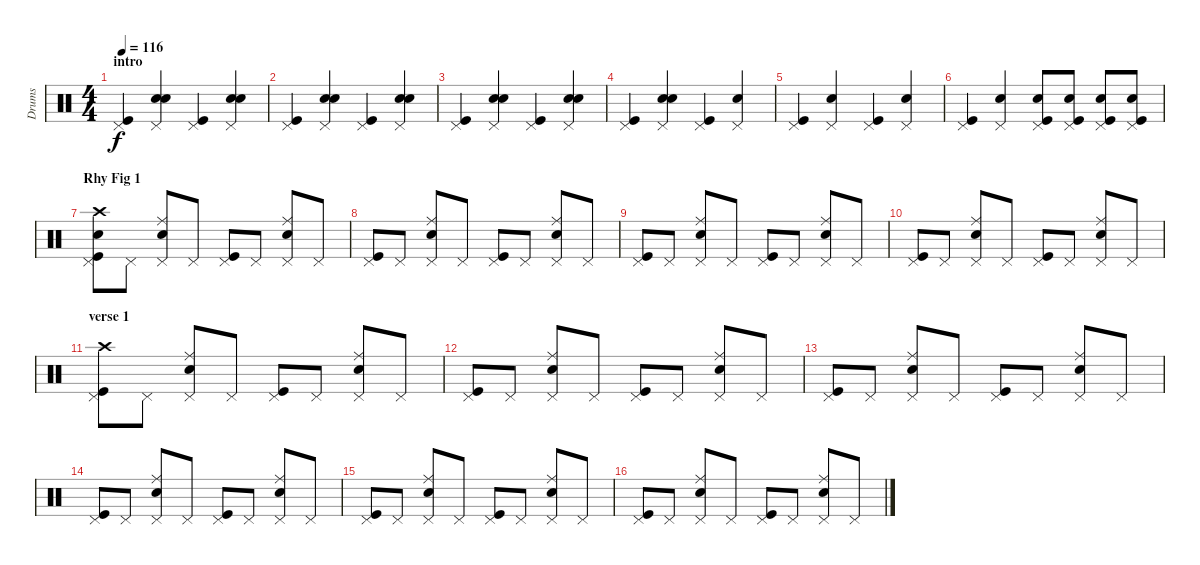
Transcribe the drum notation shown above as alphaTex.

\track ("Drums" "Drums") {instrument percussion}
\staff {score}
\articulation defaults
\ts (4 4)
\section ("" "intro")
\tempo 116
\clef neutral
\ks c
("Pedal Hi-Hat (hit)" "Kick (hit)").4{dy f} ("Electric Snare (hit)" "Electric Snare (hit)" "Pedal Hi-Hat (hit)").4 ("Pedal Hi-Hat (hit)" "Kick (hit)").4 ("Electric Snare (hit)" "Electric Snare (hit)" "Pedal Hi-Hat (hit)").4 |
("Pedal Hi-Hat (hit)" "Kick (hit)").4 ("Electric Snare (hit)" "Electric Snare (hit)" "Pedal Hi-Hat (hit)").4 ("Pedal Hi-Hat (hit)" "Kick (hit)").4 ("Electric Snare (hit)" "Electric Snare (hit)" "Pedal Hi-Hat (hit)").4 |
("Pedal Hi-Hat (hit)" "Kick (hit)").4 ("Electric Snare (hit)" "Electric Snare (hit)" "Pedal Hi-Hat (hit)").4 ("Pedal Hi-Hat (hit)" "Kick (hit)").4 ("Electric Snare (hit)" "Electric Snare (hit)" "Pedal Hi-Hat (hit)").4 |
("Pedal Hi-Hat (hit)" "Kick (hit)").4 ("Electric Snare (hit)" "Electric Snare (hit)" "Pedal Hi-Hat (hit)").4 ("Pedal Hi-Hat (hit)" "Kick (hit)").4 ("Electric Snare (hit)" "Pedal Hi-Hat (hit)").4 |
("Pedal Hi-Hat (hit)" "Kick (hit)").4 ("Electric Snare (hit)" "Pedal Hi-Hat (hit)").4 ("Pedal Hi-Hat (hit)" "Kick (hit)").4 ("Electric Snare (hit)" "Pedal Hi-Hat (hit)").4 |
("Pedal Hi-Hat (hit)" "Kick (hit)").4 ("Electric Snare (hit)" "Pedal Hi-Hat (hit)").4 ("Electric Snare (hit)" "Pedal Hi-Hat (hit)" "Kick (hit)").8 ("Electric Snare (hit)" "Pedal Hi-Hat (hit)" "Kick (hit)").8 ("Electric Snare (hit)" "Pedal Hi-Hat (hit)" "Kick (hit)").8 ("Electric Snare (hit)" "Pedal Hi-Hat (hit)" "Kick (hit)").8 |
\section ("" "Rhy Fig 1")
("Crash high (hit)" "Electric Snare (hit)" "Pedal Hi-Hat (hit)" "Kick (hit)").8 "Pedal Hi-Hat (hit)".8 ("Ride (middle)" "Electric Snare (hit)" "Pedal Hi-Hat (hit)").8 "Pedal Hi-Hat (hit)".8 ("Pedal Hi-Hat (hit)" "Kick (hit)").8 "Pedal Hi-Hat (hit)".8 ("Ride (middle)" "Electric Snare (hit)" "Pedal Hi-Hat (hit)").8 "Pedal Hi-Hat (hit)".8 |
("Pedal Hi-Hat (hit)" "Kick (hit)").8 "Pedal Hi-Hat (hit)".8 ("Ride (middle)" "Electric Snare (hit)" "Pedal Hi-Hat (hit)").8 "Pedal Hi-Hat (hit)".8 ("Pedal Hi-Hat (hit)" "Kick (hit)").8 "Pedal Hi-Hat (hit)".8 ("Ride (middle)" "Electric Snare (hit)" "Pedal Hi-Hat (hit)").8 "Pedal Hi-Hat (hit)".8 |
("Pedal Hi-Hat (hit)" "Kick (hit)").8 "Pedal Hi-Hat (hit)".8 ("Ride (middle)" "Electric Snare (hit)" "Pedal Hi-Hat (hit)").8 "Pedal Hi-Hat (hit)".8 ("Pedal Hi-Hat (hit)" "Kick (hit)").8 "Pedal Hi-Hat (hit)".8 ("Ride (middle)" "Electric Snare (hit)" "Pedal Hi-Hat (hit)").8 "Pedal Hi-Hat (hit)".8 |
("Pedal Hi-Hat (hit)" "Kick (hit)").8 "Pedal Hi-Hat (hit)".8 ("Ride (middle)" "Electric Snare (hit)" "Pedal Hi-Hat (hit)").8 "Pedal Hi-Hat (hit)".8 ("Pedal Hi-Hat (hit)" "Kick (hit)").8 "Pedal Hi-Hat (hit)".8 ("Ride (middle)" "Electric Snare (hit)" "Pedal Hi-Hat (hit)").8 "Pedal Hi-Hat (hit)".8 |
\section ("" "verse 1")
("Crash high (hit)" "Pedal Hi-Hat (hit)" "Kick (hit)").8 "Pedal Hi-Hat (hit)".8 ("Ride (middle)" "Electric Snare (hit)" "Pedal Hi-Hat (hit)").8 "Pedal Hi-Hat (hit)".8 ("Pedal Hi-Hat (hit)" "Kick (hit)").8 "Pedal Hi-Hat (hit)".8 ("Ride (middle)" "Electric Snare (hit)" "Pedal Hi-Hat (hit)").8 "Pedal Hi-Hat (hit)".8 |
("Pedal Hi-Hat (hit)" "Kick (hit)").8 "Pedal Hi-Hat (hit)".8 ("Ride (middle)" "Electric Snare (hit)" "Pedal Hi-Hat (hit)").8 "Pedal Hi-Hat (hit)".8 ("Pedal Hi-Hat (hit)" "Kick (hit)").8 "Pedal Hi-Hat (hit)".8 ("Ride (middle)" "Electric Snare (hit)" "Pedal Hi-Hat (hit)").8 "Pedal Hi-Hat (hit)".8 |
("Pedal Hi-Hat (hit)" "Kick (hit)").8 "Pedal Hi-Hat (hit)".8 ("Ride (middle)" "Electric Snare (hit)" "Pedal Hi-Hat (hit)").8 "Pedal Hi-Hat (hit)".8 ("Pedal Hi-Hat (hit)" "Kick (hit)").8 "Pedal Hi-Hat (hit)".8 ("Ride (middle)" "Electric Snare (hit)" "Pedal Hi-Hat (hit)").8 "Pedal Hi-Hat (hit)".8 |
("Pedal Hi-Hat (hit)" "Kick (hit)").8 "Pedal Hi-Hat (hit)".8 ("Ride (middle)" "Electric Snare (hit)" "Pedal Hi-Hat (hit)").8 "Pedal Hi-Hat (hit)".8 ("Pedal Hi-Hat (hit)" "Kick (hit)").8 "Pedal Hi-Hat (hit)".8 ("Ride (middle)" "Electric Snare (hit)" "Pedal Hi-Hat (hit)").8 "Pedal Hi-Hat (hit)".8 |
("Pedal Hi-Hat (hit)" "Kick (hit)").8 "Pedal Hi-Hat (hit)".8 ("Ride (middle)" "Electric Snare (hit)" "Pedal Hi-Hat (hit)").8 "Pedal Hi-Hat (hit)".8 ("Pedal Hi-Hat (hit)" "Kick (hit)").8 "Pedal Hi-Hat (hit)".8 ("Ride (middle)" "Electric Snare (hit)" "Pedal Hi-Hat (hit)").8 "Pedal Hi-Hat (hit)".8 |
("Pedal Hi-Hat (hit)" "Kick (hit)").8 "Pedal Hi-Hat (hit)".8 ("Ride (middle)" "Electric Snare (hit)" "Pedal Hi-Hat (hit)").8 "Pedal Hi-Hat (hit)".8 ("Pedal Hi-Hat (hit)" "Kick (hit)").8 "Pedal Hi-Hat (hit)".8 ("Ride (middle)" "Electric Snare (hit)" "Pedal Hi-Hat (hit)").8 "Pedal Hi-Hat (hit)".8
